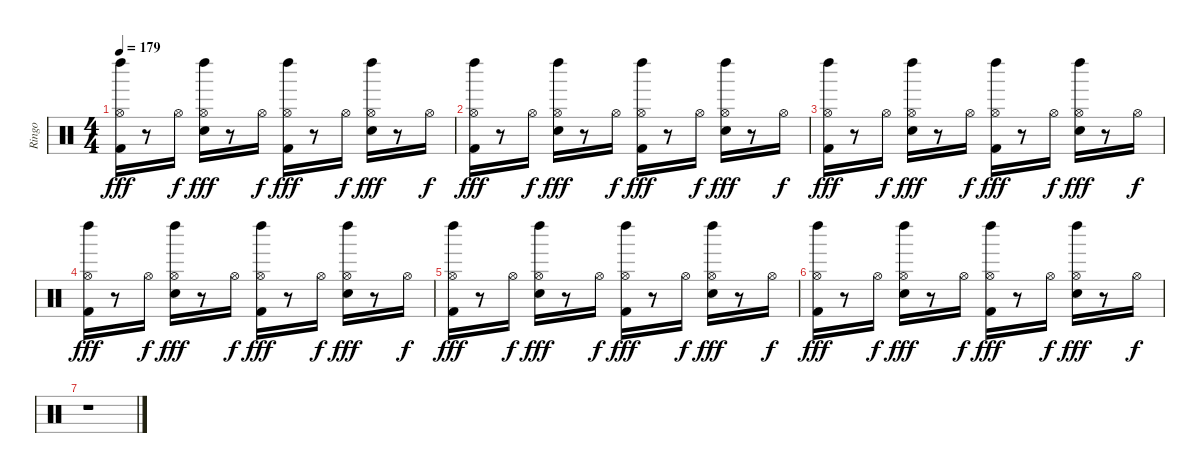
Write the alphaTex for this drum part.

\track ("Ringo" "Ringo") {instrument percussion}
\staff {score}
\articulation defaults
\ts (4 4)
\tempo 179
\clef neutral
\ks c
("Kick (hit) 2" "Hi-Hat (open)" "Left Maraca (hit)").16{dy fff} r.8 "Hi-Hat (open)".16{dy f} ("Snare (hit) 2" "Hi-Hat (open)" "Left Maraca (hit)").16{dy fff} r.8 "Hi-Hat (open)".16{dy f} ("Kick (hit) 2" "Hi-Hat (open)" "Left Maraca (hit)").16{dy fff} r.8 "Hi-Hat (open)".16{dy f} ("Snare (hit) 2" "Hi-Hat (open)" "Left Maraca (hit)").16{dy fff} r.8 "Hi-Hat (open)".16{dy f} |
("Kick (hit) 2" "Hi-Hat (open)" "Left Maraca (hit)").16{dy fff} r.8 "Hi-Hat (open)".16{dy f} ("Snare (hit) 2" "Hi-Hat (open)" "Left Maraca (hit)").16{dy fff} r.8 "Hi-Hat (open)".16{dy f} ("Kick (hit) 2" "Hi-Hat (open)" "Left Maraca (hit)").16{dy fff} r.8 "Hi-Hat (open)".16{dy f} ("Snare (hit) 2" "Hi-Hat (open)" "Left Maraca (hit)").16{dy fff} r.8 "Hi-Hat (open)".16{dy f} |
("Kick (hit) 2" "Hi-Hat (open)" "Left Maraca (hit)").16{dy fff} r.8 "Hi-Hat (open)".16{dy f} ("Snare (hit) 2" "Hi-Hat (open)" "Left Maraca (hit)").16{dy fff} r.8 "Hi-Hat (open)".16{dy f} ("Kick (hit) 2" "Hi-Hat (open)" "Left Maraca (hit)").16{dy fff} r.8 "Hi-Hat (open)".16{dy f} ("Snare (hit) 2" "Hi-Hat (open)" "Left Maraca (hit)").16{dy fff} r.8 "Hi-Hat (open)".16{dy f} |
("Kick (hit) 2" "Hi-Hat (open)" "Left Maraca (hit)").16{dy fff} r.8 "Hi-Hat (open)".16{dy f} ("Snare (hit) 2" "Hi-Hat (open)" "Left Maraca (hit)").16{dy fff} r.8 "Hi-Hat (open)".16{dy f} ("Kick (hit) 2" "Hi-Hat (open)" "Left Maraca (hit)").16{dy fff} r.8 "Hi-Hat (open)".16{dy f} ("Snare (hit) 2" "Hi-Hat (open)" "Left Maraca (hit)").16{dy fff} r.8 "Hi-Hat (open)".16{dy f} |
("Kick (hit) 2" "Hi-Hat (open)" "Left Maraca (hit)").16{dy fff volume 11} r.8 "Hi-Hat (open)".16{dy f volume 11} ("Snare (hit) 2" "Hi-Hat (open)" "Left Maraca (hit)").16{dy fff volume 11} r.8 "Hi-Hat (open)".16{dy f volume 10} ("Kick (hit) 2" "Hi-Hat (open)" "Left Maraca (hit)").16{dy fff volume 10} r.8 "Hi-Hat (open)".16{dy f volume 10} ("Snare (hit) 2" "Hi-Hat (open)" "Left Maraca (hit)").16{dy fff volume 9} r.8 "Hi-Hat (open)".16{dy f volume 9} |
("Kick (hit) 2" "Hi-Hat (open)" "Left Maraca (hit)").16{dy fff volume 9} r.8 "Hi-Hat (open)".16{dy f volume 8} ("Snare (hit) 2" "Hi-Hat (open)" "Left Maraca (hit)").16{dy fff volume 8} r.8 "Hi-Hat (open)".16{dy f volume 7} ("Kick (hit) 2" "Hi-Hat (open)" "Left Maraca (hit)").16{dy fff volume 7} r.8 "Hi-Hat (open)".16{dy f volume 7} ("Snare (hit) 2" "Hi-Hat (open)" "Left Maraca (hit)").16{dy fff volume 6} r.8 "Hi-Hat (open)".16{dy f volume 6} |
r.1
